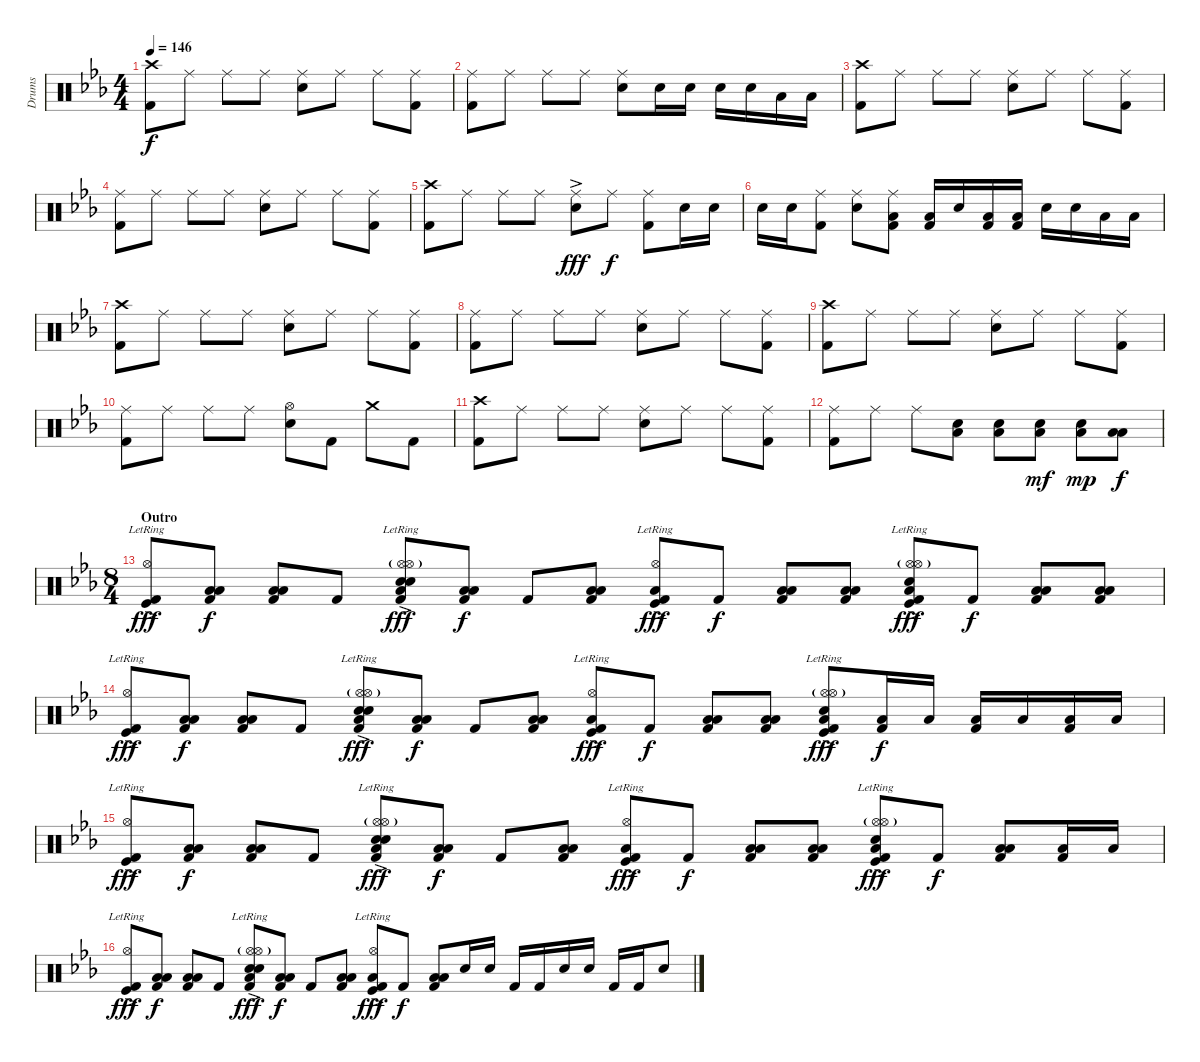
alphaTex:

\track ("Drums" "Drums") {instrument percussion}
\staff {score}
\articulation defaults
\ts (4 4)
\tempo 146
\clef neutral
\ks eb
("Crash high (hit)" "Kick (hit) 2").8{dy f} "Ride (middle)".8 "Ride (middle)".8 "Ride (middle)".8 ("Ride (middle)" "Electric Snare (hit)").8 "Ride (middle)".8 "Ride (middle)".8 ("Ride (middle)" "Kick (hit) 2").8 |
("Ride (middle)" "Kick (hit) 2").8 "Ride (middle)".8 "Ride (middle)".8 "Ride (middle)".8 ("Ride (middle)" "Electric Snare (hit)").8 "Electric Snare (hit)".16 "Electric Snare (hit)".16 "Electric Snare (hit)".16 "Electric Snare (hit)".16 "Low Tom (hit)".16 "Low Floor Tom (hit)".16 |
("Crash high (hit)" "Kick (hit) 2").8 "Ride (middle)".8 "Ride (middle)".8 "Ride (middle)".8 ("Ride (middle)" "Electric Snare (hit)").8 "Ride (middle)".8 "Ride (middle)".8 ("Ride (middle)" "Kick (hit) 2").8 |
("Ride (middle)" "Kick (hit) 2").8 "Ride (middle)".8 "Ride (middle)".8 "Ride (middle)".8 ("Ride (middle)" "Electric Snare (hit)").8 "Ride (middle)".8 "Ride (middle)".8 ("Ride (middle)" "Kick (hit) 2").8 |
("Crash high (hit)" "Kick (hit) 2").8 "Ride (middle)".8 "Ride (middle)".8 "Ride (middle)".8 ("Ride (middle)"{ac} "Electric Snare (hit)"{ac}).8{dy fff} "Ride (middle)".8{dy f} ("Ride (middle)" "Kick (hit) 2").8 "Electric Snare (hit)".16 "Electric Snare (hit)".16 |
"Electric Snare (hit)".16 "Electric Snare (hit)".16 ("Ride (middle)" "Kick (hit) 2").8 ("Ride (middle)" "Electric Snare (hit)").8 ("Ride (middle)" "Low Tom (hit)" "Kick (hit) 2").8 ("Low Tom (hit)" "Kick (hit) 2").16 "Electric Snare (hit)".16 ("Low Tom (hit)" "Kick (hit) 2").16 ("Low Tom (hit)" "Kick (hit) 2").16 "Electric Snare (hit)".16 "Electric Snare (hit)".16 "Low Tom (hit)".16 "Low Floor Tom (hit)".16 |
("Crash high (hit)" "Kick (hit) 2").8 "Ride (middle)".8 "Ride (middle)".8 "Ride (middle)".8 ("Ride (middle)" "Electric Snare (hit)").8 "Ride (middle)".8 "Ride (middle)".8 ("Ride (middle)" "Kick (hit) 2").8 |
("Ride (middle)" "Kick (hit) 2").8 "Ride (middle)".8 "Ride (middle)".8 "Ride (middle)".8 ("Ride (middle)" "Electric Snare (hit)").8 "Ride (middle)".8 "Ride (middle)".8 ("Ride (middle)" "Kick (hit) 2").8 |
("Crash high (hit)" "Kick (hit) 2").8 "Ride (middle)".8 "Ride (middle)".8 "Ride (middle)".8 ("Ride (middle)" "Electric Snare (hit)").8 "Ride (middle)".8 "Ride (middle)".8 ("Ride (middle)" "Kick (hit) 2").8 |
("Ride (middle)" "Kick (hit) 2").8 "Ride (middle)".8 "Ride (middle)".8 "Ride (middle)".8 ("Hi-Hat (open)" "Electric Snare (hit)").8 "Kick (hit) 2".8 "Crash medium (hit)".8 "Kick (hit) 2".8 |
("Crash high (hit)" "Kick (hit) 2").8 "Ride (middle)".8 "Ride (middle)".8 "Ride (middle)".8 ("Ride (middle)" "Electric Snare (hit)").8 "Ride (middle)".8 "Ride (middle)".8 ("Ride (middle)" "Kick (hit) 2").8 |
("Ride (middle)" "Kick (hit) 2").8 "Ride (middle)".8 "Ride (middle)".8 ("Low Tom (hit)" "Electric Snare (hit)").8 ("Low Tom (hit)" "Electric Snare (hit)").8 ("Low Tom (hit)" "Electric Snare (hit)").8{dy mf} ("Low Tom (hit)" "Electric Snare (hit)").8{dy mp} ("Low Tom (hit)" "Low Floor Tom (hit)").8{dy f} |
\ts (8 4)
\section ("" "Outro")
("Hi-Hat (open)"{ac} "Kick (hit)"{ac} "Kick (hit) 2"{ac lr}).8{dy fff} ("Low Tom (hit)" "Low Floor Tom (hit)" "Kick (hit) 2").8{dy f} ("Low Tom (hit)" "Low Floor Tom (hit)" "Kick (hit) 2").8 "Kick (hit) 2".8 ("Hi-Hat (open)"{ac} "Hi-Hat (open)"{g} "Snare (hit) 2"{ac lr} "Kick (hit) 2" "Low Floor Tom (hit)" "Electric Snare (hit)"{ac lr}).8{dy fff} ("Low Tom (hit)" "Low Floor Tom (hit)" "Kick (hit) 2").8{dy f} "Kick (hit) 2".8 ("Low Tom (hit)" "Low Floor Tom (hit)" "Kick (hit) 2").8 ("Hi-Hat (open)"{ac} "Kick (hit)"{ac lr} "Low Floor Tom (hit)" "Kick (hit) 2"{ac lr}).8{dy fff} "Kick (hit) 2".8{dy f} ("Low Tom (hit)" "Low Floor Tom (hit)" "Kick (hit) 2").8 ("Low Tom (hit)" "Low Floor Tom (hit)" "Kick (hit) 2").8 ("Hi-Hat (open)"{ac} "Hi-Hat (open)"{g} "Kick (hit)"{ac lr} "Kick (hit) 2"{ac lr} "Low Floor Tom (hit)" "Electric Snare (hit)").8{dy fff} "Kick (hit) 2".8{dy f} ("Low Tom (hit)" "Low Floor Tom (hit)" "Kick (hit) 2").8 ("Low Tom (hit)" "Low Floor Tom (hit)" "Kick (hit) 2").8 |
("Hi-Hat (open)"{ac} "Kick (hit)"{ac} "Kick (hit) 2"{ac lr}).8{dy fff} ("Low Tom (hit)" "Low Floor Tom (hit)" "Kick (hit) 2").8{dy f} ("Low Tom (hit)" "Low Floor Tom (hit)" "Kick (hit) 2").8 "Kick (hit) 2".8 ("Hi-Hat (open)"{ac} "Hi-Hat (open)"{g} "Snare (hit) 2"{ac lr} "Kick (hit) 2" "Low Floor Tom (hit)" "Electric Snare (hit)"{ac lr}).8{dy fff} ("Low Tom (hit)" "Low Floor Tom (hit)" "Kick (hit) 2").8{dy f} "Kick (hit) 2".8 ("Low Tom (hit)" "Low Floor Tom (hit)" "Kick (hit) 2").8 ("Hi-Hat (open)"{ac} "Kick (hit)"{ac lr} "Low Floor Tom (hit)" "Kick (hit) 2"{ac lr}).8{dy fff} "Kick (hit) 2".8{dy f} ("Low Tom (hit)" "Low Floor Tom (hit)" "Kick (hit) 2").8 ("Low Tom (hit)" "Low Floor Tom (hit)" "Kick (hit) 2").8 ("Hi-Hat (open)"{ac} "Hi-Hat (open)"{g} "Kick (hit)"{ac lr} "Kick (hit) 2"{ac lr} "Low Floor Tom (hit)" "Electric Snare (hit)").8{dy fff} ("Low Floor Tom (hit)" "Kick (hit) 2").16{dy f} "Low Tom (hit)".16 ("Low Floor Tom (hit)" "Kick (hit) 2").16 "Low Tom (hit)".16 ("Low Floor Tom (hit)" "Kick (hit) 2").16 "Low Tom (hit)".16 |
("Hi-Hat (open)"{ac} "Kick (hit)"{ac} "Kick (hit) 2"{ac lr}).8{dy fff} ("Low Tom (hit)" "Low Floor Tom (hit)" "Kick (hit) 2").8{dy f} ("Low Tom (hit)" "Low Floor Tom (hit)" "Kick (hit) 2").8 "Kick (hit) 2".8 ("Hi-Hat (open)"{ac} "Hi-Hat (open)"{g} "Snare (hit) 2"{ac lr} "Kick (hit) 2" "Low Floor Tom (hit)" "Electric Snare (hit)"{ac lr}).8{dy fff} ("Low Tom (hit)" "Low Floor Tom (hit)" "Kick (hit) 2").8{dy f} "Kick (hit) 2".8 ("Low Tom (hit)" "Low Floor Tom (hit)" "Kick (hit) 2").8 ("Hi-Hat (open)"{ac} "Kick (hit)"{ac lr} "Low Floor Tom (hit)" "Kick (hit) 2"{ac lr}).8{dy fff} "Kick (hit) 2".8{dy f} ("Low Tom (hit)" "Low Floor Tom (hit)" "Kick (hit) 2").8 ("Low Tom (hit)" "Low Floor Tom (hit)" "Kick (hit) 2").8 ("Hi-Hat (open)"{ac} "Hi-Hat (open)"{g} "Kick (hit)"{ac lr} "Kick (hit) 2"{ac lr} "Low Floor Tom (hit)" "Electric Snare (hit)").8{dy fff} "Kick (hit) 2".8{dy f} ("Low Tom (hit)" "Low Floor Tom (hit)" "Kick (hit) 2").8 ("Low Floor Tom (hit)" "Kick (hit) 2").16 "Low Tom (hit)".16 |
("Hi-Hat (open)"{ac} "Kick (hit)"{ac lr} "Kick (hit) 2"{ac lr}).8{dy fff} ("Low Tom (hit)" "Low Floor Tom (hit)" "Kick (hit) 2").8{dy f} ("Low Tom (hit)" "Low Floor Tom (hit)" "Kick (hit) 2").8 "Kick (hit) 2".8 ("Hi-Hat (open)"{ac} "Hi-Hat (open)"{g} "Kick (hit) 2" "Snare (hit) 2"{ac lr} "Low Floor Tom (hit)" "Electric Snare (hit)"{ac lr}).8{dy fff} ("Low Tom (hit)" "Low Floor Tom (hit)" "Kick (hit) 2").8{dy f} "Kick (hit) 2".8 ("Low Tom (hit)" "Low Floor Tom (hit)" "Kick (hit) 2").8 ("Hi-Hat (open)"{ac} "Kick (hit)"{ac lr} "Low Floor Tom (hit)" "Kick (hit) 2"{ac lr}).8{dy fff} "Kick (hit) 2".8{dy f} ("Low Tom (hit)" "Low Floor Tom (hit)" "Kick (hit) 2").8 "Electric Snare (hit)".16 "Electric Snare (hit)".16 "Kick (hit) 2".16 "Kick (hit) 2".16 "Electric Snare (hit)".16 "Electric Snare (hit)".16 "Kick (hit) 2".16 "Kick (hit) 2".16 "Electric Snare (hit)".8
